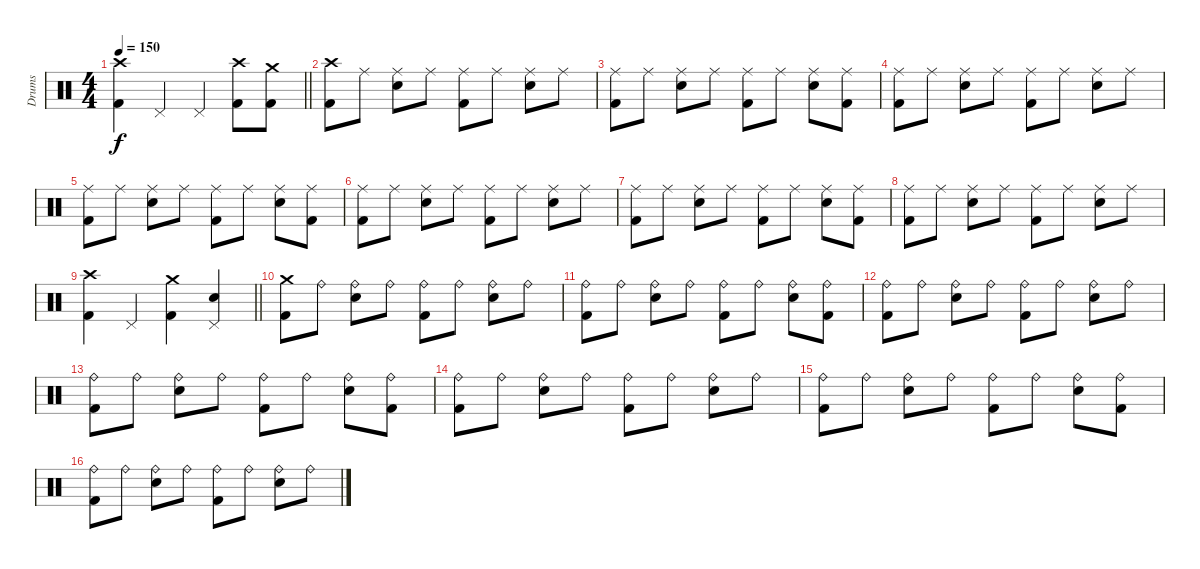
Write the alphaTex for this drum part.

\track ("Drums" "Drums") {instrument percussion}
\staff {score}
\articulation defaults
\ts (4 4)
\tempo 150
\clef neutral
\barLineRight lightlight
\ks c
("Crash high (hit)" "Kick (hit) 2").4{dy f} "Pedal Hi-Hat (hit)".4 "Pedal Hi-Hat (hit)".4 ("Crash high (hit)" "Kick (hit) 2").8 ("Crash medium (hit)" "Kick (hit) 2").8 |
("Crash high (hit)" "Kick (hit) 2").8 "Ride (middle)".8 ("Ride (middle)" "Snare (hit) 2").8 "Ride (middle)".8 ("Ride (middle)" "Kick (hit) 2").8 "Ride (middle)".8 ("Ride (middle)" "Snare (hit) 2").8 "Ride (middle)".8 |
("Ride (middle)" "Kick (hit) 2").8 "Ride (middle)".8 ("Ride (middle)" "Snare (hit) 2").8 "Ride (middle)".8 ("Ride (middle)" "Kick (hit) 2").8 "Ride (middle)".8 ("Ride (middle)" "Snare (hit) 2").8 ("Ride (middle)" "Kick (hit) 2").8 |
("Ride (middle)" "Kick (hit) 2").8 "Ride (middle)".8 ("Ride (middle)" "Snare (hit) 2").8 "Ride (middle)".8 ("Ride (middle)" "Kick (hit) 2").8 "Ride (middle)".8 ("Ride (middle)" "Snare (hit) 2").8 "Ride (middle)".8 |
("Ride (middle)" "Kick (hit) 2").8 "Ride (middle)".8 ("Ride (middle)" "Snare (hit) 2").8 "Ride (middle)".8 ("Ride (middle)" "Kick (hit) 2").8 "Ride (middle)".8 ("Ride (middle)" "Snare (hit) 2").8 ("Ride (middle)" "Kick (hit) 2").8 |
("Ride (middle)" "Kick (hit) 2").8 "Ride (middle)".8 ("Ride (middle)" "Snare (hit) 2").8 "Ride (middle)".8 ("Ride (middle)" "Kick (hit) 2").8 "Ride (middle)".8 ("Ride (middle)" "Snare (hit) 2").8 "Ride (middle)".8 |
("Ride (middle)" "Kick (hit) 2").8 "Ride (middle)".8 ("Ride (middle)" "Snare (hit) 2").8 "Ride (middle)".8 ("Ride (middle)" "Kick (hit) 2").8 "Ride (middle)".8 ("Ride (middle)" "Snare (hit) 2").8 ("Ride (middle)" "Kick (hit) 2").8 |
("Ride (middle)" "Kick (hit) 2").8 "Ride (middle)".8 ("Ride (middle)" "Snare (hit) 2").8 "Ride (middle)".8 ("Ride (middle)" "Kick (hit) 2").8 "Ride (middle)".8 ("Ride (middle)" "Snare (hit) 2").8 "Ride (middle)".8 |
\barLineRight lightlight
("Crash high (hit)" "Kick (hit) 2").4 "Pedal Hi-Hat (hit)".4 ("Crash medium (hit)" "Kick (hit) 2").4 ("Pedal Hi-Hat (hit)" "Snare (hit) 2").4 |
("Crash medium (hit)" "Kick (hit) 2").8 "Ride (bell)".8 ("Ride (bell)" "Snare (hit) 2").8 "Ride (bell)".8 ("Ride (bell)" "Kick (hit) 2").8 "Ride (bell)".8 ("Ride (bell)" "Snare (hit) 2").8 "Ride (bell)".8 |
("Ride (bell)" "Kick (hit) 2").8 "Ride (bell)".8 ("Ride (bell)" "Snare (hit) 2").8 "Ride (bell)".8 ("Ride (bell)" "Kick (hit) 2").8 "Ride (bell)".8 ("Ride (bell)" "Snare (hit) 2").8 ("Ride (bell)" "Kick (hit) 2").8 |
("Ride (bell)" "Kick (hit) 2").8 "Ride (bell)".8 ("Ride (bell)" "Snare (hit) 2").8 "Ride (bell)".8 ("Ride (bell)" "Kick (hit) 2").8 "Ride (bell)".8 ("Ride (bell)" "Snare (hit) 2").8 "Ride (bell)".8 |
("Ride (bell)" "Kick (hit) 2").8 "Ride (bell)".8 ("Ride (bell)" "Snare (hit) 2").8 "Ride (bell)".8 ("Ride (bell)" "Kick (hit) 2").8 "Ride (bell)".8 ("Ride (bell)" "Snare (hit) 2").8 ("Ride (bell)" "Kick (hit) 2").8 |
("Ride (bell)" "Kick (hit) 2").8 "Ride (bell)".8 ("Ride (bell)" "Snare (hit) 2").8 "Ride (bell)".8 ("Ride (bell)" "Kick (hit) 2").8 "Ride (bell)".8 ("Ride (bell)" "Snare (hit) 2").8 "Ride (bell)".8 |
("Ride (bell)" "Kick (hit) 2").8 "Ride (bell)".8 ("Ride (bell)" "Snare (hit) 2").8 "Ride (bell)".8 ("Ride (bell)" "Kick (hit) 2").8 "Ride (bell)".8 ("Ride (bell)" "Snare (hit) 2").8 ("Ride (bell)" "Kick (hit) 2").8 |
("Ride (bell)" "Kick (hit) 2").8 "Ride (bell)".8 ("Ride (bell)" "Snare (hit) 2").8 "Ride (bell)".8 ("Ride (bell)" "Kick (hit) 2").8 "Ride (bell)".8 ("Ride (bell)" "Snare (hit) 2").8 "Ride (bell)".8
